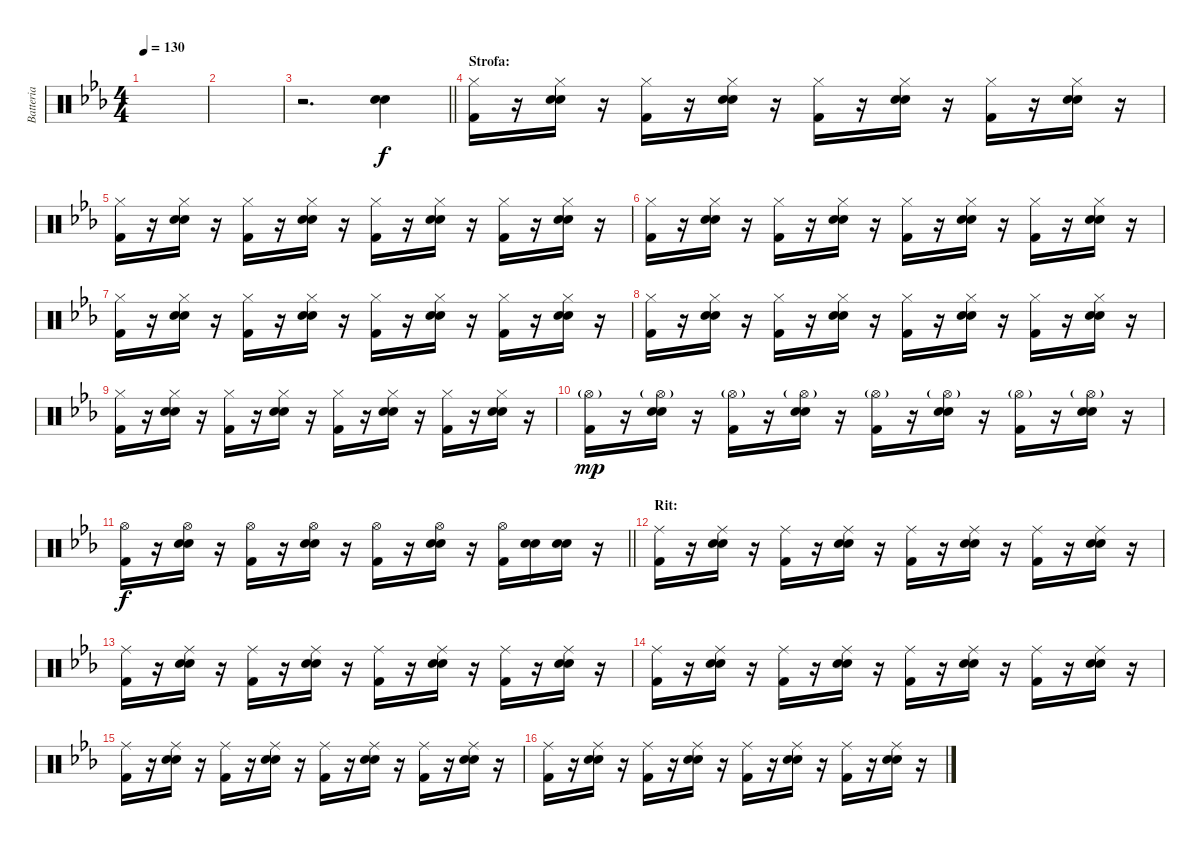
\track ("Batteria" "Batteria") {instrument percussion}
\staff {score}
\articulation defaults
\ts (4 4)
\tempo 130
\clef neutral
\ks eb
|
|
\barLineRight lightlight
r.2{d} ("Snare (hit) 2" "Snare (hit) 2").4 |
\section ("" "Strofa:")
("Kick (hit) 2" "Hi-Hat (closed)").16 r.16 ("Snare (hit) 2" "Snare (hit) 2" "Hi-Hat (closed)").16 r.16 ("Kick (hit) 2" "Hi-Hat (closed)").16 r.16 ("Snare (hit) 2" "Snare (hit) 2" "Hi-Hat (closed)").16 r.16 ("Kick (hit) 2" "Hi-Hat (closed)").16 r.16 ("Snare (hit) 2" "Snare (hit) 2" "Hi-Hat (closed)").16 r.16 ("Kick (hit) 2" "Hi-Hat (closed)").16 r.16 ("Snare (hit) 2" "Snare (hit) 2" "Hi-Hat (closed)").16 r.16 |
("Kick (hit) 2" "Hi-Hat (closed)").16 r.16 ("Snare (hit) 2" "Snare (hit) 2" "Hi-Hat (closed)").16 r.16 ("Kick (hit) 2" "Hi-Hat (closed)").16 r.16 ("Snare (hit) 2" "Snare (hit) 2" "Hi-Hat (closed)").16 r.16 ("Kick (hit) 2" "Hi-Hat (closed)").16 r.16 ("Snare (hit) 2" "Snare (hit) 2" "Hi-Hat (closed)").16 r.16 ("Kick (hit) 2" "Hi-Hat (closed)").16 r.16 ("Snare (hit) 2" "Snare (hit) 2" "Hi-Hat (closed)").16 r.16 |
("Kick (hit) 2" "Hi-Hat (closed)").16 r.16 ("Snare (hit) 2" "Snare (hit) 2" "Hi-Hat (closed)").16 r.16 ("Kick (hit) 2" "Hi-Hat (closed)").16 r.16 ("Snare (hit) 2" "Snare (hit) 2" "Hi-Hat (closed)").16 r.16 ("Kick (hit) 2" "Hi-Hat (closed)").16 r.16 ("Snare (hit) 2" "Snare (hit) 2" "Hi-Hat (closed)").16 r.16 ("Kick (hit) 2" "Hi-Hat (closed)").16 r.16 ("Snare (hit) 2" "Snare (hit) 2" "Hi-Hat (closed)").16 r.16 |
("Kick (hit) 2" "Hi-Hat (closed)").16 r.16 ("Snare (hit) 2" "Snare (hit) 2" "Hi-Hat (closed)").16 r.16 ("Kick (hit) 2" "Hi-Hat (closed)").16 r.16 ("Snare (hit) 2" "Snare (hit) 2" "Hi-Hat (closed)").16 r.16 ("Kick (hit) 2" "Hi-Hat (closed)").16 r.16 ("Snare (hit) 2" "Snare (hit) 2" "Hi-Hat (closed)").16 r.16 ("Kick (hit) 2" "Hi-Hat (closed)").16 r.16 ("Snare (hit) 2" "Snare (hit) 2" "Hi-Hat (closed)").16 r.16 |
("Kick (hit) 2" "Hi-Hat (closed)").16 r.16 ("Snare (hit) 2" "Snare (hit) 2" "Hi-Hat (closed)").16 r.16 ("Kick (hit) 2" "Hi-Hat (closed)").16 r.16 ("Snare (hit) 2" "Snare (hit) 2" "Hi-Hat (closed)").16 r.16 ("Kick (hit) 2" "Hi-Hat (closed)").16 r.16 ("Snare (hit) 2" "Snare (hit) 2" "Hi-Hat (closed)").16 r.16 ("Kick (hit) 2" "Hi-Hat (closed)").16 r.16 ("Snare (hit) 2" "Snare (hit) 2" "Hi-Hat (closed)").16 r.16 |
("Kick (hit) 2" "Hi-Hat (closed)").16 r.16 ("Snare (hit) 2" "Snare (hit) 2" "Hi-Hat (closed)").16 r.16 ("Kick (hit) 2" "Hi-Hat (closed)").16 r.16 ("Snare (hit) 2" "Snare (hit) 2" "Hi-Hat (closed)").16 r.16 ("Kick (hit) 2" "Hi-Hat (closed)").16 r.16 ("Snare (hit) 2" "Snare (hit) 2" "Hi-Hat (closed)").16 r.16 ("Kick (hit) 2" "Hi-Hat (closed)").16 r.16 ("Snare (hit) 2" "Snare (hit) 2" "Hi-Hat (closed)").16 r.16 |
("Kick (hit) 2" "Hi-Hat (open)"{g}).16{dy mp} r.16 ("Snare (hit) 2" "Snare (hit) 2" "Hi-Hat (open)"{g}).16 r.16 ("Kick (hit) 2" "Hi-Hat (open)"{g}).16 r.16 ("Snare (hit) 2" "Snare (hit) 2" "Hi-Hat (open)"{g}).16 r.16 ("Kick (hit) 2" "Hi-Hat (open)"{g}).16 r.16 ("Snare (hit) 2" "Snare (hit) 2" "Hi-Hat (open)"{g}).16 r.16 ("Kick (hit) 2" "Hi-Hat (open)"{g}).16 r.16 ("Snare (hit) 2" "Snare (hit) 2" "Hi-Hat (open)"{g}).16 r.16 |
\barLineRight lightlight
("Kick (hit) 2" "Hi-Hat (open)").16{dy f} r.16 ("Snare (hit) 2" "Snare (hit) 2" "Hi-Hat (open)").16 r.16 ("Kick (hit) 2" "Hi-Hat (open)").16 r.16 ("Snare (hit) 2" "Snare (hit) 2" "Hi-Hat (open)").16 r.16 ("Kick (hit) 2" "Hi-Hat (open)").16 r.16 ("Snare (hit) 2" "Snare (hit) 2" "Hi-Hat (open)").16 r.16 ("Kick (hit) 2" "Hi-Hat (open)").16 ("Snare (hit) 2" "Snare (hit) 2").16 ("Snare (hit) 2" "Snare (hit) 2").16 r.16 |
\section ("" "Rit:")
("Kick (hit) 2" "Ride (middle)").16 r.16 ("Snare (hit) 2" "Snare (hit) 2" "Ride (middle)").16 r.16 ("Kick (hit) 2" "Ride (middle)").16 r.16 ("Snare (hit) 2" "Snare (hit) 2" "Ride (middle)").16 r.16 ("Kick (hit) 2" "Ride (middle)").16 r.16 ("Snare (hit) 2" "Snare (hit) 2" "Ride (middle)").16 r.16 ("Kick (hit) 2" "Ride (middle)").16 r.16 ("Snare (hit) 2" "Snare (hit) 2" "Ride (middle)").16 r.16 |
("Kick (hit) 2" "Ride (middle)").16 r.16 ("Snare (hit) 2" "Snare (hit) 2" "Ride (middle)").16 r.16 ("Kick (hit) 2" "Ride (middle)").16 r.16 ("Snare (hit) 2" "Snare (hit) 2" "Ride (middle)").16 r.16 ("Kick (hit) 2" "Ride (middle)").16 r.16 ("Snare (hit) 2" "Snare (hit) 2" "Ride (middle)").16 r.16 ("Kick (hit) 2" "Ride (middle)").16 r.16 ("Snare (hit) 2" "Snare (hit) 2" "Ride (middle)").16 r.16 |
("Kick (hit) 2" "Ride (middle)").16 r.16 ("Snare (hit) 2" "Snare (hit) 2" "Ride (middle)").16 r.16 ("Kick (hit) 2" "Ride (middle)").16 r.16 ("Snare (hit) 2" "Snare (hit) 2" "Ride (middle)").16 r.16 ("Kick (hit) 2" "Ride (middle)").16 r.16 ("Snare (hit) 2" "Snare (hit) 2" "Ride (middle)").16 r.16 ("Kick (hit) 2" "Ride (middle)").16 r.16 ("Snare (hit) 2" "Snare (hit) 2" "Ride (middle)").16 r.16 |
("Kick (hit) 2" "Ride (middle)").16 r.16 ("Snare (hit) 2" "Snare (hit) 2" "Ride (middle)").16 r.16 ("Kick (hit) 2" "Ride (middle)").16 r.16 ("Snare (hit) 2" "Snare (hit) 2" "Ride (middle)").16 r.16 ("Kick (hit) 2" "Ride (middle)").16 r.16 ("Snare (hit) 2" "Snare (hit) 2" "Ride (middle)").16 r.16 ("Kick (hit) 2" "Ride (middle)").16 r.16 ("Snare (hit) 2" "Snare (hit) 2" "Ride (middle)").16 r.16 |
("Kick (hit) 2" "Ride (middle)").16 r.16 ("Snare (hit) 2" "Snare (hit) 2" "Ride (middle)").16 r.16 ("Kick (hit) 2" "Ride (middle)").16 r.16 ("Snare (hit) 2" "Snare (hit) 2" "Ride (middle)").16 r.16 ("Kick (hit) 2" "Ride (middle)").16 r.16 ("Snare (hit) 2" "Snare (hit) 2" "Ride (middle)").16 r.16 ("Kick (hit) 2" "Ride (middle)").16 r.16 ("Snare (hit) 2" "Snare (hit) 2" "Ride (middle)").16 r.16
